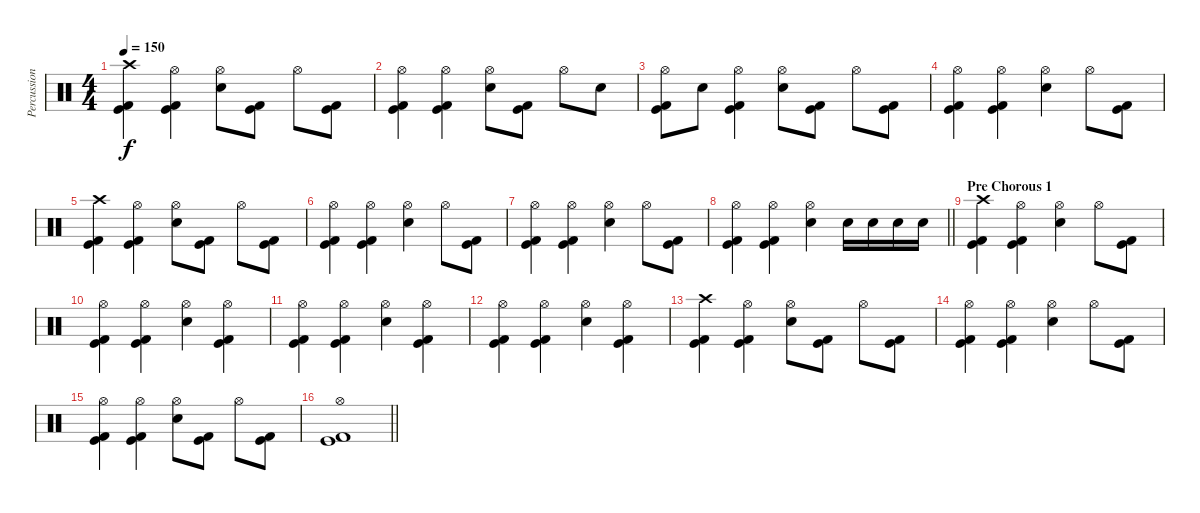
\track ("Percussion" "Percussion") {instrument percussion}
\staff {score}
\articulation defaults
\ts (4 4)
\section ("" "")
\tempo 150
\clef neutral
\ks c
("Crash high (hit)" "Kick (hit)" "Kick (hit) 2").4{dy f} ("Hi-Hat (open)" "Kick (hit)" "Kick (hit) 2").4 ("Hi-Hat (open)" "Electric Snare (hit)").8 ("Kick (hit)" "Kick (hit) 2").8 "Hi-Hat (open)".8 ("Kick (hit)" "Kick (hit) 2").8 |
("Hi-Hat (open)" "Kick (hit)" "Kick (hit) 2").4 ("Hi-Hat (open)" "Kick (hit)" "Kick (hit) 2").4 ("Hi-Hat (open)" "Electric Snare (hit)").8 ("Kick (hit)" "Kick (hit) 2").8 "Hi-Hat (open)".8 "Electric Snare (hit)".8 |
("Hi-Hat (open)" "Kick (hit)" "Kick (hit) 2").8 "Electric Snare (hit)".8 ("Hi-Hat (open)" "Kick (hit)" "Kick (hit) 2").4 ("Hi-Hat (open)" "Electric Snare (hit)").8 ("Kick (hit)" "Kick (hit) 2").8 "Hi-Hat (open)".8 ("Kick (hit)" "Kick (hit) 2").8 |
("Hi-Hat (open)" "Kick (hit)" "Kick (hit) 2").4 ("Hi-Hat (open)" "Kick (hit)" "Kick (hit) 2").4 ("Hi-Hat (open)" "Electric Snare (hit)").4 "Hi-Hat (open)".8 ("Kick (hit)" "Kick (hit) 2").8 |
("Crash high (hit)" "Kick (hit)" "Kick (hit) 2").4 ("Hi-Hat (open)" "Kick (hit)" "Kick (hit) 2").4 ("Hi-Hat (open)" "Electric Snare (hit)").8 ("Kick (hit)" "Kick (hit) 2").8 "Hi-Hat (open)".8 ("Kick (hit)" "Kick (hit) 2").8 |
("Hi-Hat (open)" "Kick (hit)" "Kick (hit) 2").4 ("Hi-Hat (open)" "Kick (hit)" "Kick (hit) 2").4 ("Hi-Hat (open)" "Electric Snare (hit)").4 "Hi-Hat (open)".8 ("Kick (hit)" "Kick (hit) 2").8 |
("Hi-Hat (open)" "Kick (hit)" "Kick (hit) 2").4 ("Hi-Hat (open)" "Kick (hit)" "Kick (hit) 2").4 ("Hi-Hat (open)" "Electric Snare (hit)").4 "Hi-Hat (open)".8 ("Kick (hit)" "Kick (hit) 2").8 |
\barLineRight lightlight
("Hi-Hat (open)" "Kick (hit)" "Kick (hit) 2").4 ("Hi-Hat (open)" "Kick (hit)" "Kick (hit) 2").4 ("Hi-Hat (open)" "Electric Snare (hit)").4 "Electric Snare (hit)".16 "Electric Snare (hit)".16 "Electric Snare (hit)".16 "Electric Snare (hit)".16 |
\section ("" "Pre Chorous 1")
("Crash high (hit)" "Kick (hit)" "Kick (hit) 2").4 ("Hi-Hat (open)" "Kick (hit)" "Kick (hit) 2").4 ("Hi-Hat (open)" "Electric Snare (hit)").4 "Hi-Hat (open)".8 ("Kick (hit)" "Kick (hit) 2").8 |
("Hi-Hat (open)" "Kick (hit)" "Kick (hit) 2").4 ("Hi-Hat (open)" "Kick (hit)" "Kick (hit) 2").4 ("Hi-Hat (open)" "Electric Snare (hit)").4 ("Hi-Hat (open)" "Kick (hit)" "Kick (hit) 2").4 |
("Hi-Hat (open)" "Kick (hit)" "Kick (hit) 2").4 ("Hi-Hat (open)" "Kick (hit)" "Kick (hit) 2").4 ("Hi-Hat (open)" "Electric Snare (hit)").4 ("Hi-Hat (open)" "Kick (hit)" "Kick (hit) 2").4 |
("Hi-Hat (open)" "Kick (hit)" "Kick (hit) 2").4 ("Hi-Hat (open)" "Kick (hit)" "Kick (hit) 2").4 ("Hi-Hat (open)" "Electric Snare (hit)").4 ("Hi-Hat (open)" "Kick (hit)" "Kick (hit) 2").4 |
("Crash high (hit)" "Kick (hit)" "Kick (hit) 2").4 ("Hi-Hat (open)" "Kick (hit)" "Kick (hit) 2").4 ("Hi-Hat (open)" "Electric Snare (hit)").8 ("Kick (hit)" "Kick (hit) 2").8 "Hi-Hat (open)".8 ("Kick (hit)" "Kick (hit) 2").8 |
("Hi-Hat (open)" "Kick (hit)" "Kick (hit) 2").4 ("Hi-Hat (open)" "Kick (hit)" "Kick (hit) 2").4 ("Hi-Hat (open)" "Electric Snare (hit)").4 "Hi-Hat (open)".8 ("Kick (hit)" "Kick (hit) 2").8 |
("Hi-Hat (open)" "Kick (hit)" "Kick (hit) 2").4 ("Hi-Hat (open)" "Kick (hit)" "Kick (hit) 2").4 ("Hi-Hat (open)" "Electric Snare (hit)").8 ("Kick (hit)" "Kick (hit) 2").8 "Hi-Hat (open)".8 ("Kick (hit)" "Kick (hit) 2").8 |
\barLineRight lightlight
("Hi-Hat (open)" "Kick (hit)" "Kick (hit) 2").1
